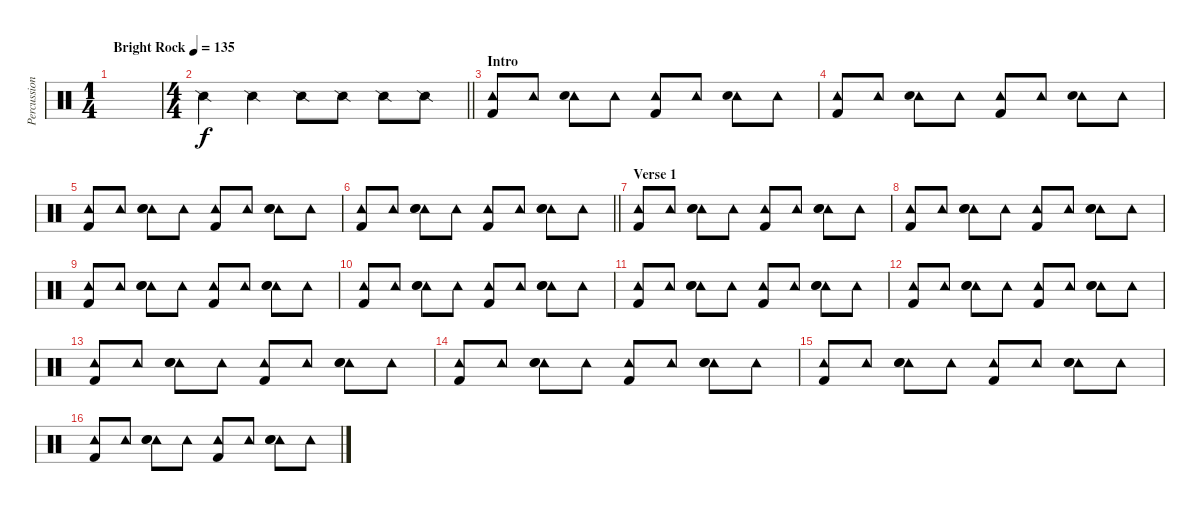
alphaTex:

\track ("Percussion" "Percussion") {instrument percussion}
\staff {score}
\articulation defaults
\ts (1 4)
\tempo (135 "Bright Rock")
\clef neutral
\ks c
|
\ts (4 4)
\barLineRight lightlight "Snare (side stick) 2".4 "Snare (side stick) 2".4 "Snare (side stick) 2".8 "Snare (side stick) 2".8 "Snare (side stick) 2".8 "Snare (side stick) 2".8
|
\section ("" "Intro")
("Tambourine (hit)" "Kick (hit) 2").8 "Tambourine (hit)".8 ("Tambourine (hit)" "Snare (hit) 2").8 "Tambourine (hit)".8 ("Tambourine (hit)" "Kick (hit) 2").8 "Tambourine (hit)".8 ("Tambourine (hit)" "Snare (hit) 2").8 "Tambourine (hit)".8 |
("Tambourine (hit)" "Kick (hit) 2").8 "Tambourine (hit)".8 ("Tambourine (hit)" "Snare (hit) 2").8 "Tambourine (hit)".8 ("Tambourine (hit)" "Kick (hit) 2").8 "Tambourine (hit)".8 ("Tambourine (hit)" "Snare (hit) 2").8 "Tambourine (hit)".8 |
("Tambourine (hit)" "Kick (hit) 2").8 "Tambourine (hit)".8 ("Tambourine (hit)" "Snare (hit) 2" "Hand Clap (hit)").8 "Tambourine (hit)".8 ("Tambourine (hit)" "Kick (hit) 2").8 "Tambourine (hit)".8 ("Tambourine (hit)" "Snare (hit) 2" "Hand Clap (hit)").8 "Tambourine (hit)".8 |
\barLineRight lightlight
("Tambourine (hit)" "Kick (hit) 2").8 "Tambourine (hit)".8 ("Tambourine (hit)" "Snare (hit) 2" "Hand Clap (hit)").8 "Tambourine (hit)".8 ("Tambourine (hit)" "Kick (hit) 2").8 "Tambourine (hit)".8 ("Tambourine (hit)" "Snare (hit) 2" "Hand Clap (hit)").8 "Tambourine (hit)".8 |
\section ("" "Verse 1")
("Tambourine (hit)" "Kick (hit) 2").8 "Tambourine (hit)".8 ("Tambourine (hit)" "Snare (hit) 2" "Hand Clap (hit)").8 "Tambourine (hit)".8 ("Tambourine (hit)" "Kick (hit) 2").8 "Tambourine (hit)".8 ("Tambourine (hit)" "Snare (hit) 2" "Hand Clap (hit)").8 "Tambourine (hit)".8 |
("Tambourine (hit)" "Kick (hit) 2").8 "Tambourine (hit)".8 ("Tambourine (hit)" "Snare (hit) 2" "Hand Clap (hit)").8 "Tambourine (hit)".8 ("Tambourine (hit)" "Kick (hit) 2").8 "Tambourine (hit)".8 ("Tambourine (hit)" "Snare (hit) 2" "Hand Clap (hit)").8 "Tambourine (hit)".8 |
("Tambourine (hit)" "Kick (hit) 2").8 "Tambourine (hit)".8 ("Tambourine (hit)" "Snare (hit) 2" "Hand Clap (hit)").8 "Tambourine (hit)".8 ("Tambourine (hit)" "Kick (hit) 2").8 "Tambourine (hit)".8 ("Tambourine (hit)" "Snare (hit) 2" "Hand Clap (hit)").8 "Tambourine (hit)".8 |
("Tambourine (hit)" "Kick (hit) 2").8 "Tambourine (hit)".8 ("Tambourine (hit)" "Snare (hit) 2" "Hand Clap (hit)").8 "Tambourine (hit)".8 ("Tambourine (hit)" "Kick (hit) 2").8 "Tambourine (hit)".8 ("Tambourine (hit)" "Snare (hit) 2" "Hand Clap (hit)").8 "Tambourine (hit)".8 |
("Tambourine (hit)" "Kick (hit) 2").8 "Tambourine (hit)".8 ("Tambourine (hit)" "Snare (hit) 2" "Hand Clap (hit)").8 "Tambourine (hit)".8 ("Tambourine (hit)" "Kick (hit) 2").8 "Tambourine (hit)".8 ("Tambourine (hit)" "Snare (hit) 2" "Hand Clap (hit)").8 "Tambourine (hit)".8 |
("Tambourine (hit)" "Kick (hit) 2").8 "Tambourine (hit)".8 ("Tambourine (hit)" "Snare (hit) 2" "Hand Clap (hit)").8 "Tambourine (hit)".8 ("Tambourine (hit)" "Kick (hit) 2").8 "Tambourine (hit)".8 ("Tambourine (hit)" "Snare (hit) 2" "Hand Clap (hit)").8 "Tambourine (hit)".8 |
("Tambourine (hit)" "Kick (hit) 2").8 "Tambourine (hit)".8 ("Tambourine (hit)" "Snare (hit) 2" "Hand Clap (hit)").8 "Tambourine (hit)".8 ("Tambourine (hit)" "Kick (hit) 2").8 "Tambourine (hit)".8 ("Tambourine (hit)" "Snare (hit) 2" "Hand Clap (hit)").8 "Tambourine (hit)".8 |
("Tambourine (hit)" "Kick (hit) 2").8 "Tambourine (hit)".8 ("Tambourine (hit)" "Snare (hit) 2" "Hand Clap (hit)").8 "Tambourine (hit)".8 ("Tambourine (hit)" "Kick (hit) 2").8 "Tambourine (hit)".8 ("Tambourine (hit)" "Snare (hit) 2" "Hand Clap (hit)").8 "Tambourine (hit)".8 |
("Tambourine (hit)" "Kick (hit) 2").8 "Tambourine (hit)".8 ("Tambourine (hit)" "Snare (hit) 2" "Hand Clap (hit)").8 "Tambourine (hit)".8 ("Tambourine (hit)" "Kick (hit) 2").8 "Tambourine (hit)".8 ("Tambourine (hit)" "Snare (hit) 2" "Hand Clap (hit)").8 "Tambourine (hit)".8 |
("Tambourine (hit)" "Kick (hit) 2").8 "Tambourine (hit)".8 ("Tambourine (hit)" "Snare (hit) 2" "Hand Clap (hit)").8 "Tambourine (hit)".8 ("Tambourine (hit)" "Kick (hit) 2").8 "Tambourine (hit)".8 ("Tambourine (hit)" "Snare (hit) 2" "Hand Clap (hit)").8 "Tambourine (hit)".8
